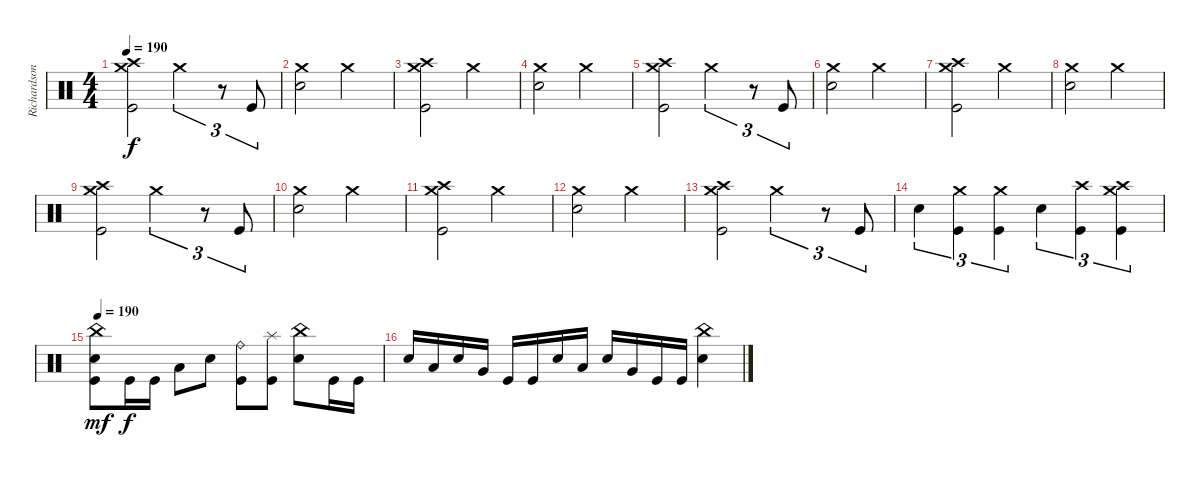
\track ("Richardson" "Richardson") {instrument percussion}
\staff {score}
\articulation defaults
\ts (4 4)
\tempo 190
\clef neutral
\ks c
("Crash medium (hit)" "Crash high (hit)" "Kick (hit)").2{dy f} "Crash medium (hit)".2{tu (3 2)} r.8{tu (3 2)} "Kick (hit)".8{tu (3 2)} |
("Crash medium (hit)" "Electric Snare (hit)").2 "Crash medium (hit)".2 |
("Crash medium (hit)" "Crash high (hit)" "Kick (hit)").2 "Crash medium (hit)".2 |
("Crash medium (hit)" "Electric Snare (hit)").2 "Crash medium (hit)".2 |
("Crash medium (hit)" "Crash high (hit)" "Kick (hit)").2 "Crash medium (hit)".2{tu (3 2)} r.8{tu (3 2)} "Kick (hit)".8{tu (3 2)} |
("Crash medium (hit)" "Electric Snare (hit)").2 "Crash medium (hit)".2 |
("Crash medium (hit)" "Crash high (hit)" "Kick (hit)").2 "Crash medium (hit)".2 |
("Crash medium (hit)" "Electric Snare (hit)").2 "Crash medium (hit)".2 |
("Crash medium (hit)" "Crash high (hit)" "Kick (hit)").2 "Crash medium (hit)".2{tu (3 2)} r.8{tu (3 2)} "Kick (hit)".8{tu (3 2)} |
("Crash medium (hit)" "Electric Snare (hit)").2 "Crash medium (hit)".2 |
("Crash medium (hit)" "Crash high (hit)" "Kick (hit)").2 "Crash medium (hit)".2 |
("Crash medium (hit)" "Electric Snare (hit)").2 "Crash medium (hit)".2 |
("Crash medium (hit)" "Crash high (hit)" "Kick (hit)").2 "Crash medium (hit)".2{tu (3 2)} r.8{tu (3 2)} "Kick (hit)".8{tu (3 2)} |
"Electric Snare (hit)".4{tu (3 2)} ("Crash medium (hit)" "Kick (hit)").4{tu (3 2)} ("Crash medium (hit)" "Kick (hit)").4{tu (3 2)} "Electric Snare (hit)".4{tu (3 2)} ("Crash high (hit)" "Kick (hit)").4{tu (3 2)} ("Crash medium (hit)" "Crash high (hit)" "Kick (hit)").4{tu (3 2)} |
\tempo 190
("China (hit)" "Electric Snare (hit)" "Kick (hit)").8{dy mf} "Kick (hit)".16{dy f} "Kick (hit)".16 "Low Tom (hit)".8 "Electric Snare (hit)".8 ("Ride (bell)" "Kick (hit)").8 ("Splash (hit)" "Kick (hit)").8 ("China (hit)" "Electric Snare (hit)").8 "Kick (hit)".16 "Kick (hit)".16 |
"Electric Snare (hit)".16 "Low Tom (hit)".16 "Electric Snare (hit)".16 "Very Low Tom (hit)".16 "Kick (hit)".16 "Kick (hit)".16 "Electric Snare (hit)".16 "Low Tom (hit)".16 "Electric Snare (hit)".16 "Very Low Tom (hit)".16 "Kick (hit)".16 "Kick (hit)".16 ("China (hit)" "Electric Snare (hit)").4
